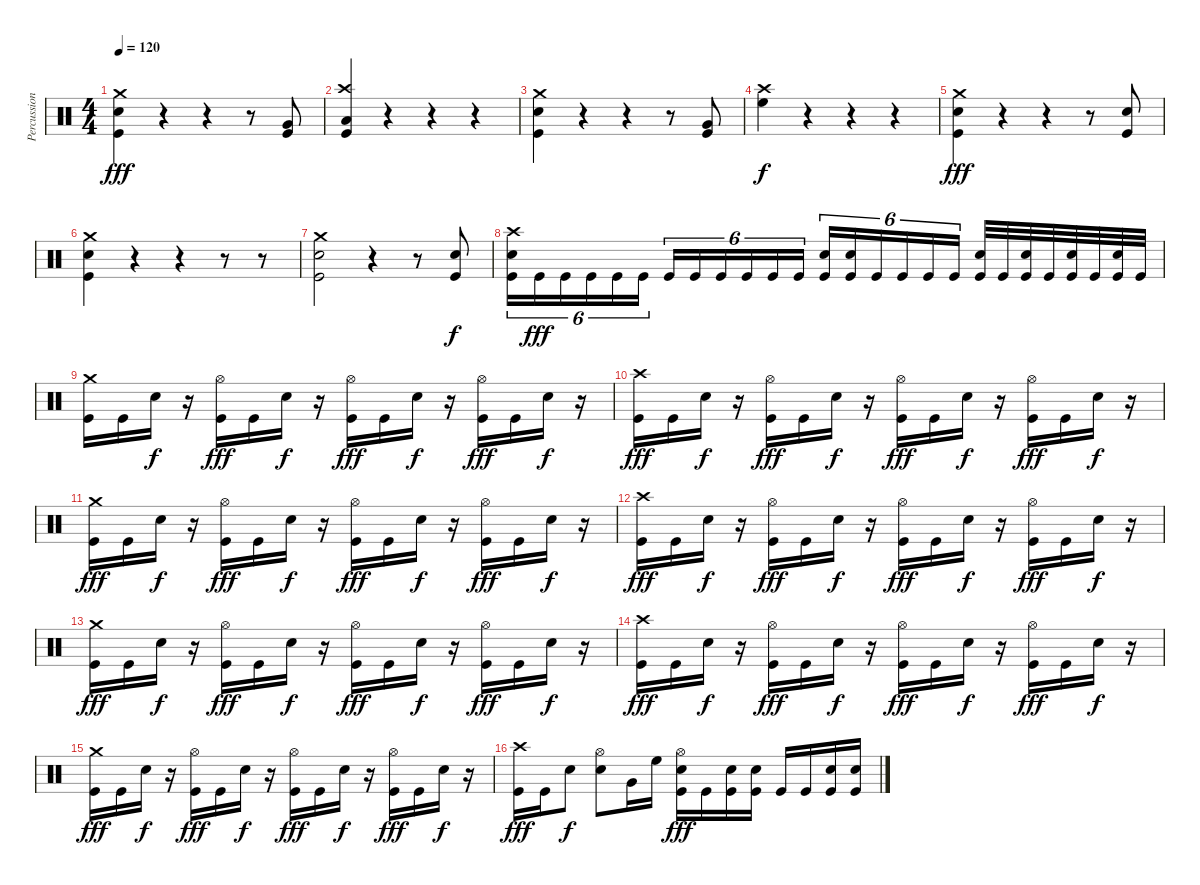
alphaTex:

\track ("Percussion" "Percussion") {instrument percussion}
\staff {score}
\articulation defaults
\ts (4 4)
\tempo 120
\clef neutral
\ks c
("Crash medium (hit)" "Electric Snare (hit)" "Kick (hit)").4{dy fff} r.4 r.4 r.8 ("Very Low Tom (hit)" "Kick (hit)").8 |
("Crash high (hit)" "Low Tom (hit)" "Kick (hit)").4 r.4 r.4 r.4 |
("Crash medium (hit)" "Electric Snare (hit)" "Kick (hit)").4 r.4 r.4 r.8 ("Very Low Tom (hit)" "Kick (hit)").8 |
("Crash high (hit)" "High Floor Tom (hit)").4{dy f} r.4 r.4 r.4 |
("Crash medium (hit)" "Electric Snare (hit)" "Kick (hit)").4{dy fff} r.4 r.4 r.8 ("Electric Snare (hit)" "Kick (hit)").8 |
("Crash medium (hit)" "Electric Snare (hit)" "Kick (hit)").4 r.4 r.4 r.8 r.8 |
("Crash medium (hit)" "Electric Snare (hit)" "Kick (hit)").2 r.4 r.8 ("Electric Snare (hit)" "Kick (hit)").8{dy f} |
("Crash high (hit)" "Electric Snare (hit)" "Kick (hit)").16{tu (6 4)} "Kick (hit)".16{tu (6 4) dy fff} "Kick (hit)".16{tu (6 4)} "Kick (hit)".16{tu (6 4)} "Kick (hit)".16{tu (6 4)} "Kick (hit)".16{tu (6 4)} "Kick (hit)".16{tu (6 4)} "Kick (hit)".16{tu (6 4)} "Kick (hit)".16{tu (6 4)} "Kick (hit)".16{tu (6 4)} "Kick (hit)".16{tu (6 4)} "Kick (hit)".16{tu (6 4)} ("Electric Snare (hit)" "Kick (hit)").16{tu (6 4)} ("Electric Snare (hit)" "Kick (hit)").16{tu (6 4)} "Kick (hit)".16{tu (6 4)} "Kick (hit)".16{tu (6 4)} "Kick (hit)".16{tu (6 4)} "Kick (hit)".16{tu (6 4)} ("Electric Snare (hit)" "Kick (hit)").32 "Kick (hit)".32 ("Electric Snare (hit)" "Kick (hit)").32 "Kick (hit)".32 ("Electric Snare (hit)" "Kick (hit)").32 "Kick (hit)".32 ("Electric Snare (hit)" "Kick (hit)").32 "Kick (hit)".32 |
("Crash medium (hit)" "Kick (hit)").16 "Kick (hit)".16 "Electric Snare (hit)".16{dy f} r.16 ("Hi-Hat (open)" "Kick (hit)").16{dy fff} "Kick (hit)".16 "Electric Snare (hit)".16{dy f} r.16 ("Hi-Hat (open)" "Kick (hit)").16{dy fff} "Kick (hit)".16 "Electric Snare (hit)".16{dy f} r.16 ("Hi-Hat (open)" "Kick (hit)").16{dy fff} "Kick (hit)".16 "Electric Snare (hit)".16{dy f} r.16 |
("Crash high (hit)" "Kick (hit)").16{dy fff} "Kick (hit)".16 "Electric Snare (hit)".16{dy f} r.16 ("Hi-Hat (open)" "Kick (hit)").16{dy fff} "Kick (hit)".16 "Electric Snare (hit)".16{dy f} r.16 ("Hi-Hat (open)" "Kick (hit)").16{dy fff} "Kick (hit)".16 "Electric Snare (hit)".16{dy f} r.16 ("Hi-Hat (open)" "Kick (hit)").16{dy fff} "Kick (hit)".16 "Electric Snare (hit)".16{dy f} r.16 |
("Crash medium (hit)" "Kick (hit)").16{dy fff} "Kick (hit)".16 "Electric Snare (hit)".16{dy f} r.16 ("Hi-Hat (open)" "Kick (hit)").16{dy fff} "Kick (hit)".16 "Electric Snare (hit)".16{dy f} r.16 ("Hi-Hat (open)" "Kick (hit)").16{dy fff} "Kick (hit)".16 "Electric Snare (hit)".16{dy f} r.16 ("Hi-Hat (open)" "Kick (hit)").16{dy fff} "Kick (hit)".16 "Electric Snare (hit)".16{dy f} r.16 |
("Crash high (hit)" "Kick (hit)").16{dy fff} "Kick (hit)".16 "Electric Snare (hit)".16{dy f} r.16 ("Hi-Hat (open)" "Kick (hit)").16{dy fff} "Kick (hit)".16 "Electric Snare (hit)".16{dy f} r.16 ("Hi-Hat (open)" "Kick (hit)").16{dy fff} "Kick (hit)".16 "Electric Snare (hit)".16{dy f} r.16 ("Hi-Hat (open)" "Kick (hit)").16{dy fff} "Kick (hit)".16 "Electric Snare (hit)".16{dy f} r.16 |
("Crash medium (hit)" "Kick (hit)").16{dy fff} "Kick (hit)".16 "Electric Snare (hit)".16{dy f} r.16 ("Hi-Hat (open)" "Kick (hit)").16{dy fff} "Kick (hit)".16 "Electric Snare (hit)".16{dy f} r.16 ("Hi-Hat (open)" "Kick (hit)").16{dy fff} "Kick (hit)".16 "Electric Snare (hit)".16{dy f} r.16 ("Hi-Hat (open)" "Kick (hit)").16{dy fff} "Kick (hit)".16 "Electric Snare (hit)".16{dy f} r.16 |
("Crash high (hit)" "Kick (hit)").16{dy fff} "Kick (hit)".16 "Electric Snare (hit)".16{dy f} r.16 ("Hi-Hat (open)" "Kick (hit)").16{dy fff} "Kick (hit)".16 "Electric Snare (hit)".16{dy f} r.16 ("Hi-Hat (open)" "Kick (hit)").16{dy fff} "Kick (hit)".16 "Electric Snare (hit)".16{dy f} r.16 ("Hi-Hat (open)" "Kick (hit)").16{dy fff} "Kick (hit)".16 "Electric Snare (hit)".16{dy f} r.16 |
("Crash medium (hit)" "Kick (hit)").16{dy fff} "Kick (hit)".16 "Electric Snare (hit)".16{dy f} r.16 ("Hi-Hat (open)" "Kick (hit)").16{dy fff} "Kick (hit)".16 "Electric Snare (hit)".16{dy f} r.16 ("Hi-Hat (open)" "Kick (hit)").16{dy fff} "Kick (hit)".16 "Electric Snare (hit)".16{dy f} r.16 ("Hi-Hat (open)" "Kick (hit)").16{dy fff} "Kick (hit)".16 "Electric Snare (hit)".16{dy f} r.16 |
("Crash high (hit)" "Kick (hit)").16{dy fff} "Kick (hit)".16 "Electric Snare (hit)".8{dy f} ("Hi-Hat (open)" "Electric Snare (hit)").8 "Very Low Tom (hit)".16 "High Floor Tom (hit)".16 ("Hi-Hat (open)" "Electric Snare (hit)" "Kick (hit)").16{dy fff} "Kick (hit)".16 ("Electric Snare (hit)" "Kick (hit)").16 ("Electric Snare (hit)" "Kick (hit)").16 "Kick (hit)".16 "Kick (hit)".16 ("Electric Snare (hit)" "Kick (hit)").16 ("Electric Snare (hit)" "Kick (hit)").16
